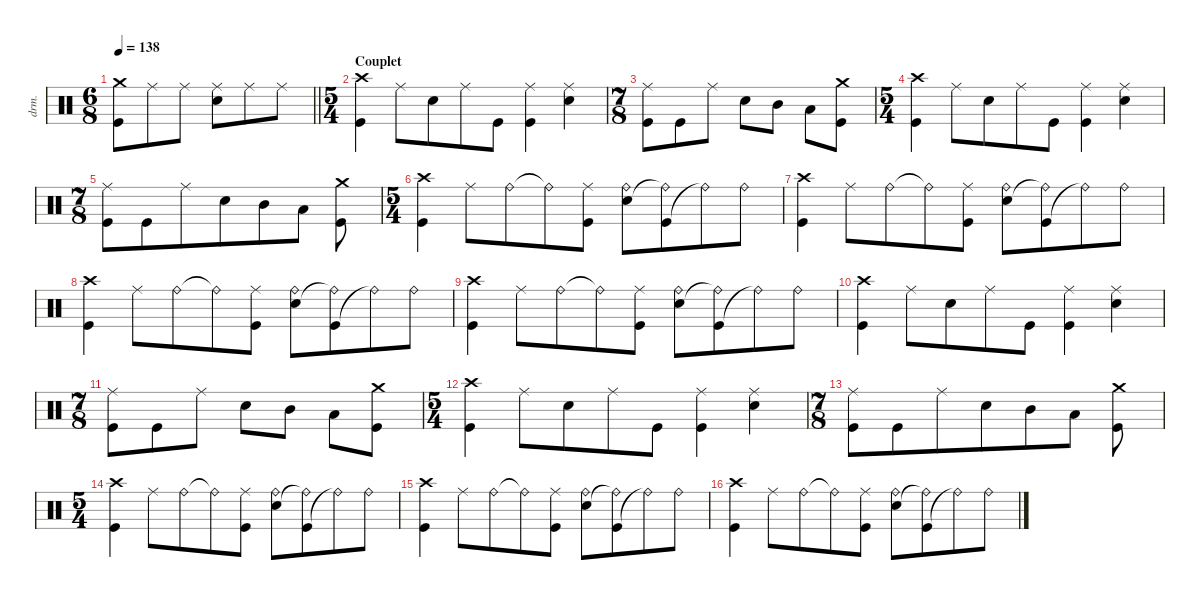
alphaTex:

\defaultSystemsLayout 4
\hideDynamics
\bracketExtendMode nobrackets
\track ("Percussions" "drm.") {instrument percussion}
\staff {score}
\articulation defaults
\ts (6 8)
\tempo 138
\clef neutral
\barLineRight lightlight
\ks aminor
("Crash medium (hit)" "Kick (hit)").8{dy f beam Down} "Ride (middle)".8{beam Down} "Ride (middle)".8{beam Down} ("Ride (middle)" "Snare (hit) 2").8{beam Down} "Ride (middle)".8{beam Down} "Ride (middle)".8{beam Down} |
\ts (5 4)
\beaming (8 6 4)
\section ("" "Couplet")
("Crash high (hit)" "Kick (hit)").4 "Ride (middle)".8 "Snare (hit) 2".8 "Ride (middle)".8 "Kick (hit)".8 ("Ride (middle)" "Kick (hit)").4 ("Ride (middle)" "Snare (hit) 2").4 |
\ts (7 8)
\beaming (8 3 2 2)
("Ride (middle)" "Kick (hit)").8 "Kick (hit)".8 "Ride (middle)".8 "Snare (hit) 2".8 "Mid Tom (hit)".8 "Low Tom (hit)".8 ("Kick (hit)" "Crash medium (hit)").8 |
\ts (5 4)
\beaming (8 6 4)
("Crash high (hit)" "Kick (hit)").4 "Ride (middle)".8 "Snare (hit) 2".8 "Ride (middle)".8 "Kick (hit)".8 ("Ride (middle)" "Kick (hit)").4 ("Ride (middle)" "Snare (hit) 2").4 |
\ts (7 8)
\beaming (8 6 4)
("Ride (middle)" "Kick (hit)").8 "Kick (hit)".8 "Ride (middle)".8 "Snare (hit) 2".8 "Mid Tom (hit)".8 "Low Tom (hit)".8 ("Kick (hit)" "Crash medium (hit)").8 |
\ts (5 4)
\beaming (8 6 4)
("Crash high (hit)" "Kick (hit)").4 "Ride (middle)".8 "Ride (bell)".8 "Ride (bell)"{t}.8 ("Ride (middle)" "Kick (hit)").8 ("Ride (bell)" "Snare (hit) 2").8 ("Kick (hit)" "Ride (bell)"{t}).8 "Ride (bell)"{t}.8 "Ride (bell)".8 |
("Crash high (hit)" "Kick (hit)").4 "Ride (middle)".8 "Ride (bell)".8 "Ride (bell)"{t}.8 ("Ride (middle)" "Kick (hit)").8 ("Ride (bell)" "Snare (hit) 2").8 ("Kick (hit)" "Ride (bell)"{t}).8 "Ride (bell)"{t}.8 "Ride (bell)".8 |
("Crash high (hit)" "Kick (hit)").4 "Ride (middle)".8 "Ride (bell)".8 "Ride (bell)"{t}.8 ("Ride (middle)" "Kick (hit)").8 ("Ride (bell)" "Snare (hit) 2").8 ("Kick (hit)" "Ride (bell)"{t}).8 "Ride (bell)"{t}.8 "Ride (bell)".8 |
("Crash high (hit)" "Kick (hit)").4 "Ride (middle)".8 "Ride (bell)".8 "Ride (bell)"{t}.8 ("Ride (middle)" "Kick (hit)").8 ("Ride (bell)" "Snare (hit) 2").8 ("Kick (hit)" "Ride (bell)"{t}).8 "Ride (bell)"{t}.8 "Ride (bell)".8 |
("Crash high (hit)" "Kick (hit)").4 "Ride (middle)".8 "Snare (hit) 2".8 "Ride (middle)".8 "Kick (hit)".8 ("Ride (middle)" "Kick (hit)").4 ("Ride (middle)" "Snare (hit) 2").4 |
\ts (7 8)
\beaming (8 3 2 2)
("Ride (middle)" "Kick (hit)").8 "Kick (hit)".8 "Ride (middle)".8 "Snare (hit) 2".8 "Mid Tom (hit)".8 "Low Tom (hit)".8 ("Kick (hit)" "Crash medium (hit)").8 |
\ts (5 4)
\beaming (8 6 4)
("Crash high (hit)" "Kick (hit)").4 "Ride (middle)".8 "Snare (hit) 2".8 "Ride (middle)".8 "Kick (hit)".8 ("Ride (middle)" "Kick (hit)").4 ("Ride (middle)" "Snare (hit) 2").4 |
\ts (7 8)
\beaming (8 6 4)
("Ride (middle)" "Kick (hit)").8 "Kick (hit)".8 "Ride (middle)".8 "Snare (hit) 2".8 "Mid Tom (hit)".8 "Low Tom (hit)".8 ("Kick (hit)" "Crash medium (hit)").8 |
\ts (5 4)
\beaming (8 6 4)
("Crash high (hit)" "Kick (hit)").4 "Ride (middle)".8 "Ride (bell)".8 "Ride (bell)"{t}.8 ("Ride (middle)" "Kick (hit)").8 ("Ride (bell)" "Snare (hit) 2").8 ("Kick (hit)" "Ride (bell)"{t}).8 "Ride (bell)"{t}.8 "Ride (bell)".8 |
("Crash high (hit)" "Kick (hit)").4 "Ride (middle)".8 "Ride (bell)".8 "Ride (bell)"{t}.8 ("Ride (middle)" "Kick (hit)").8 ("Ride (bell)" "Snare (hit) 2").8 ("Kick (hit)" "Ride (bell)"{t}).8 "Ride (bell)"{t}.8 "Ride (bell)".8 |
("Crash high (hit)" "Kick (hit)").4 "Ride (middle)".8 "Ride (bell)".8 "Ride (bell)"{t}.8 ("Ride (middle)" "Kick (hit)").8 ("Ride (bell)" "Snare (hit) 2").8 ("Kick (hit)" "Ride (bell)"{t}).8 "Ride (bell)"{t}.8 "Ride (bell)".8
